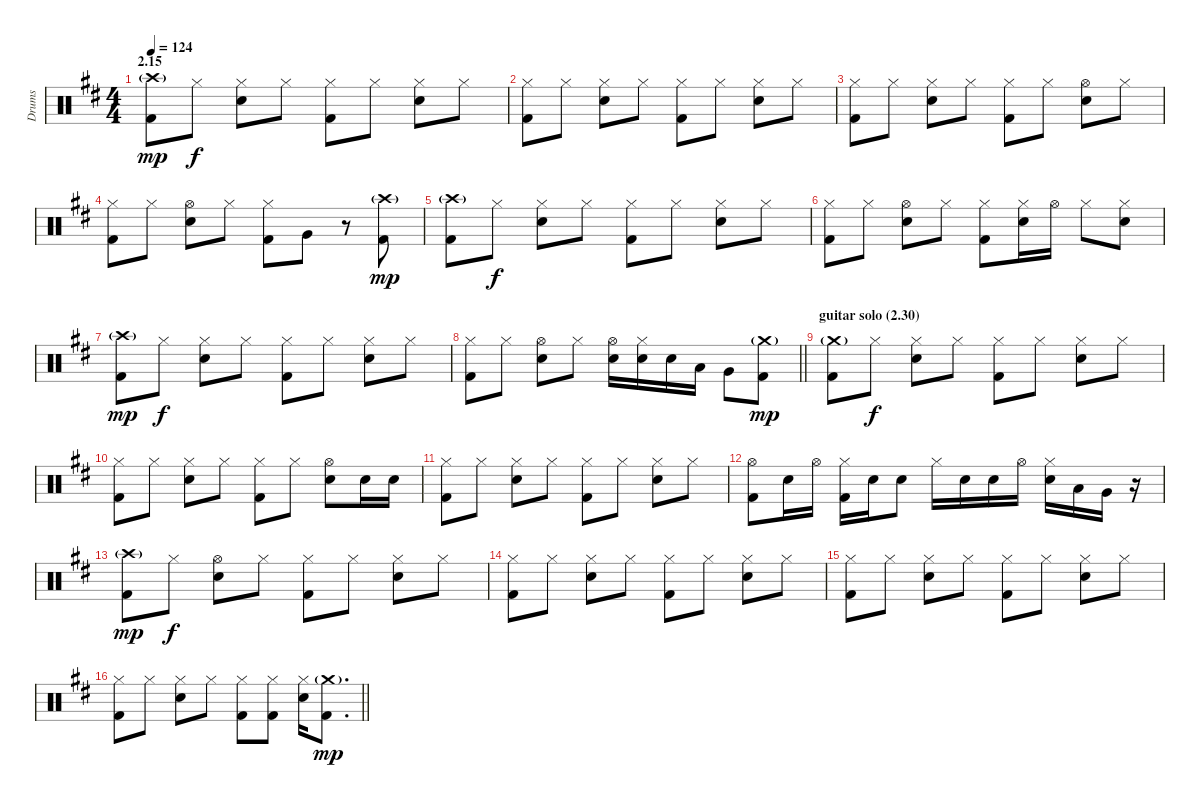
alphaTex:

\track ("Drums" "Drums") {instrument percussion}
\staff {score}
\articulation defaults
\ts (4 4)
\section ("" "2.15")
\tempo 124
\clef neutral
\ks d
("Crash high (hit)"{g} "Kick (hit) 2").8{dy mp} "Hi-Hat (closed)".8{dy f} ("Hi-Hat (closed)" "Electric Snare (hit)").8 "Hi-Hat (closed)".8 ("Hi-Hat (closed)" "Kick (hit) 2").8 "Hi-Hat (closed)".8 ("Hi-Hat (closed)" "Electric Snare (hit)").8 "Hi-Hat (closed)".8 |
("Hi-Hat (closed)" "Kick (hit) 2").8 "Hi-Hat (closed)".8 ("Hi-Hat (closed)" "Electric Snare (hit)").8 "Hi-Hat (closed)".8 ("Hi-Hat (closed)" "Kick (hit) 2").8 "Hi-Hat (closed)".8 ("Hi-Hat (closed)" "Electric Snare (hit)").8 "Hi-Hat (closed)".8 |
("Hi-Hat (closed)" "Kick (hit) 2").8 "Hi-Hat (closed)".8 ("Hi-Hat (closed)" "Electric Snare (hit)").8 "Hi-Hat (closed)".8 ("Hi-Hat (closed)" "Kick (hit) 2").8 "Hi-Hat (closed)".8 ("Hi-Hat (open)" "Electric Snare (hit)").8 "Hi-Hat (closed)".8 |
("Hi-Hat (closed)" "Kick (hit) 2").8 "Hi-Hat (closed)".8 ("Hi-Hat (open)" "Electric Snare (hit)").8 "Hi-Hat (closed)".8 ("Hi-Hat (closed)" "Kick (hit) 2").8 "Very Low Tom (hit)".8 r.8 ("Crash high (hit)"{g} "Kick (hit) 2").8{dy mp} |
("Crash high (hit)"{g} "Kick (hit) 2").8 "Hi-Hat (closed)".8{dy f} ("Hi-Hat (closed)" "Electric Snare (hit)").8 "Hi-Hat (closed)".8 ("Hi-Hat (closed)" "Kick (hit) 2").8 "Hi-Hat (closed)".8 ("Hi-Hat (closed)" "Electric Snare (hit)").8 "Hi-Hat (closed)".8 |
("Hi-Hat (closed)" "Kick (hit) 2").8 "Hi-Hat (closed)".8 ("Hi-Hat (open)" "Electric Snare (hit)").8 "Hi-Hat (closed)".8 ("Hi-Hat (closed)" "Kick (hit) 2").8 ("Hi-Hat (closed)" "Electric Snare (hit)").16 "Hi-Hat (open)".16 "Hi-Hat (closed)".8 ("Hi-Hat (closed)" "Electric Snare (hit)").8 |
("Crash high (hit)"{g} "Kick (hit) 2").8{dy mp} "Hi-Hat (closed)".8{dy f} ("Hi-Hat (closed)" "Electric Snare (hit)").8 "Hi-Hat (closed)".8 ("Hi-Hat (closed)" "Kick (hit) 2").8 "Hi-Hat (closed)".8 ("Hi-Hat (closed)" "Electric Snare (hit)").8 "Hi-Hat (closed)".8 |
\barLineRight lightlight
("Hi-Hat (closed)" "Kick (hit) 2").8 "Hi-Hat (closed)".8 ("Hi-Hat (open)" "Electric Snare (hit)").8 "Hi-Hat (closed)".8 ("Hi-Hat (open)" "Electric Snare (hit)").16 ("Hi-Hat (closed)" "Electric Snare (hit)").16 "Electric Snare (hit)".16 "Low Tom (hit)".16 "Very Low Tom (hit)".8 ("Crash medium (hit)"{g} "Kick (hit) 2").8{dy mp} |
\section ("" "guitar solo (2.30)")
("Crash medium (hit)"{g} "Kick (hit) 2").8 "Hi-Hat (closed)".8{dy f} ("Hi-Hat (closed)" "Electric Snare (hit)").8 "Hi-Hat (closed)".8 ("Hi-Hat (closed)" "Kick (hit) 2").8 "Hi-Hat (closed)".8 ("Hi-Hat (closed)" "Electric Snare (hit)").8 "Hi-Hat (closed)".8 |
("Hi-Hat (closed)" "Kick (hit) 2").8 "Hi-Hat (closed)".8 ("Hi-Hat (closed)" "Electric Snare (hit)").8 "Hi-Hat (closed)".8 ("Hi-Hat (closed)" "Kick (hit) 2").8 "Hi-Hat (closed)".8 ("Hi-Hat (open)" "Electric Snare (hit)").8 "Electric Snare (hit)".16 "Electric Snare (hit)".16 |
("Hi-Hat (closed)" "Kick (hit) 2").8 "Hi-Hat (closed)".8 ("Hi-Hat (closed)" "Electric Snare (hit)").8 "Hi-Hat (closed)".8 ("Hi-Hat (closed)" "Kick (hit) 2").8 "Hi-Hat (closed)".8 ("Hi-Hat (closed)" "Electric Snare (hit)").8 "Hi-Hat (closed)".8 |
("Hi-Hat (open)" "Kick (hit) 2").8 "Electric Snare (hit)".16 "Hi-Hat (open)".16 ("Hi-Hat (closed)" "Kick (hit) 2").16 "Electric Snare (hit)".16 "Electric Snare (hit)".8 "Hi-Hat (closed)".16 "Electric Snare (hit)".16 "Electric Snare (hit)".16 "Hi-Hat (open)".16 ("Hi-Hat (closed)" "Electric Snare (hit)").16 "Low Tom (hit)".16 "Very Low Tom (hit)".16 r.16 |
("Crash high (hit)"{g} "Kick (hit) 2").8{dy mp} "Hi-Hat (closed)".8{dy f} ("Hi-Hat (open)" "Electric Snare (hit)").8 "Hi-Hat (closed)".8 ("Hi-Hat (closed)" "Kick (hit) 2").8 "Hi-Hat (closed)".8 ("Hi-Hat (closed)" "Electric Snare (hit)").8 "Hi-Hat (closed)".8 |
("Hi-Hat (closed)" "Kick (hit) 2").8 "Hi-Hat (closed)".8 ("Hi-Hat (closed)" "Electric Snare (hit)").8 "Hi-Hat (closed)".8 ("Hi-Hat (closed)" "Kick (hit) 2").8 "Hi-Hat (closed)".8 ("Hi-Hat (closed)" "Electric Snare (hit)").8 "Hi-Hat (closed)".8 |
("Hi-Hat (closed)" "Kick (hit) 2").8 "Hi-Hat (closed)".8 ("Hi-Hat (closed)" "Electric Snare (hit)").8 "Hi-Hat (closed)".8 ("Hi-Hat (closed)" "Kick (hit) 2").8 "Hi-Hat (closed)".8 ("Hi-Hat (closed)" "Electric Snare (hit)").8 "Hi-Hat (closed)".8 |
\barLineRight lightlight
("Hi-Hat (closed)" "Kick (hit) 2").8 "Hi-Hat (closed)".8 ("Hi-Hat (closed)" "Electric Snare (hit)").8 "Hi-Hat (closed)".8 ("Hi-Hat (closed)" "Kick (hit) 2").8 ("Hi-Hat (closed)" "Kick (hit) 2").8 ("Hi-Hat (closed)" "Electric Snare (hit)").16 ("Crash medium (hit)"{g} "Kick (hit) 2").8{d dy mp}
